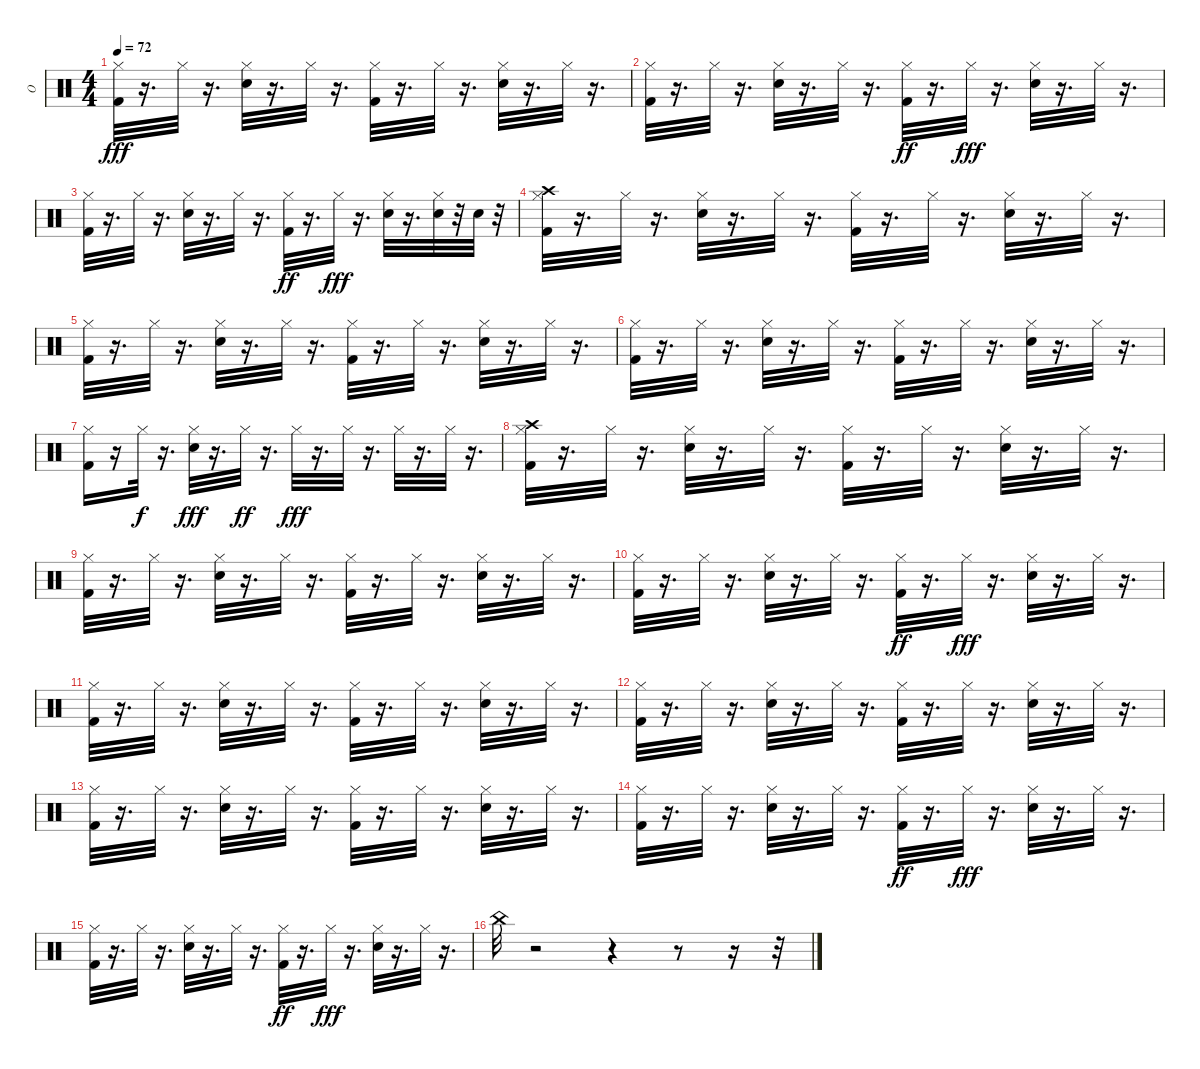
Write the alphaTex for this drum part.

\track ("O" "O") {instrument percussion}
\staff {score}
\articulation defaults
\ts (4 4)
\tempo 72
\clef neutral
\ks c
("Hi-Hat (closed)" "Kick (hit) 2").32{dy fff} r.16{d} "Hi-Hat (closed)".32 r.16{d} ("Hi-Hat (closed)" "Snare (hit) 2").32 r.16{d} "Hi-Hat (closed)".32 r.16{d} ("Hi-Hat (closed)" "Kick (hit) 2").32 r.16{d} "Hi-Hat (closed)".32 r.16{d} ("Hi-Hat (closed)" "Snare (hit) 2").32 r.16{d} "Hi-Hat (closed)".32 r.16{d} |
("Hi-Hat (closed)" "Kick (hit) 2").32 r.16{d} "Hi-Hat (closed)".32 r.16{d} ("Hi-Hat (closed)" "Snare (hit) 2").32 r.16{d} "Hi-Hat (closed)".32 r.16{d} ("Hi-Hat (closed)" "Kick (hit) 2").32{dy ff} r.16{d} "Hi-Hat (closed)".32{dy fff} r.16{d} ("Hi-Hat (closed)" "Snare (hit) 2").32 r.16{d} "Hi-Hat (closed)".32 r.16{d} |
("Hi-Hat (closed)" "Kick (hit) 2").32 r.16{d} "Hi-Hat (closed)".32 r.16{d} ("Hi-Hat (closed)" "Snare (hit) 2").32 r.16{d} "Hi-Hat (closed)".32 r.16{d} ("Hi-Hat (closed)" "Kick (hit) 2").32{dy ff} r.16{d} "Hi-Hat (closed)".32{dy fff} r.16{d} ("Hi-Hat (closed)" "Snare (hit) 2").32 r.16{d} ("Snare (hit) 2" "Hi-Hat (closed)").32 r.32 "Snare (hit) 2".32 r.32 |
("Crash high (hit)" "Kick (hit) 2" "Hi-Hat (closed)").32 r.16{d} "Hi-Hat (closed)".32 r.16{d} ("Hi-Hat (closed)" "Snare (hit) 2").32 r.16{d} "Hi-Hat (closed)".32 r.16{d} ("Hi-Hat (closed)" "Kick (hit) 2").32 r.16{d} "Hi-Hat (closed)".32 r.16{d} ("Hi-Hat (closed)" "Snare (hit) 2").32 r.16{d} "Hi-Hat (closed)".32 r.16{d} |
("Hi-Hat (closed)" "Kick (hit) 2").32 r.16{d} "Hi-Hat (closed)".32 r.16{d} ("Hi-Hat (closed)" "Snare (hit) 2").32 r.16{d} "Hi-Hat (closed)".32 r.16{d} ("Hi-Hat (closed)" "Kick (hit) 2").32 r.16{d} "Hi-Hat (closed)".32 r.16{d} ("Hi-Hat (closed)" "Snare (hit) 2").32 r.16{d} "Hi-Hat (closed)".32 r.16{d} |
("Hi-Hat (closed)" "Kick (hit) 2").32 r.16{d} "Hi-Hat (closed)".32 r.16{d} ("Hi-Hat (closed)" "Snare (hit) 2").32 r.16{d} "Hi-Hat (closed)".32 r.16{d} ("Hi-Hat (closed)" "Kick (hit) 2").32 r.16{d} "Hi-Hat (closed)".32 r.16{d} ("Hi-Hat (closed)" "Snare (hit) 2").32 r.16{d} "Hi-Hat (closed)".32 r.16{d} |
("Kick (hit) 2" "Hi-Hat (closed)").16 r.16 "Hi-Hat (closed)".32{dy f} r.16{d} ("Snare (hit) 2" "Hi-Hat (closed)").32{dy fff} r.16{d} "Hi-Hat (closed)".32{dy ff} r.16{d} "Hi-Hat (closed)".32{dy fff} r.16{d} "Hi-Hat (closed)".32 r.16{d} "Hi-Hat (closed)".32 r.16{d} "Hi-Hat (closed)".32 r.16{d} |
("Hi-Hat (closed)" "Kick (hit) 2" "Crash high (hit)").32 r.16{d} "Hi-Hat (closed)".32 r.16{d} ("Hi-Hat (closed)" "Snare (hit) 2").32 r.16{d} "Hi-Hat (closed)".32 r.16{d} ("Hi-Hat (closed)" "Kick (hit) 2").32 r.16{d} "Hi-Hat (closed)".32 r.16{d} ("Hi-Hat (closed)" "Snare (hit) 2").32 r.16{d} "Hi-Hat (closed)".32 r.16{d} |
("Kick (hit) 2" "Hi-Hat (closed)").32 r.16{d} "Hi-Hat (closed)".32 r.16{d} ("Hi-Hat (closed)" "Snare (hit) 2").32 r.16{d} "Hi-Hat (closed)".32 r.16{d} ("Hi-Hat (closed)" "Kick (hit) 2").32 r.16{d} "Hi-Hat (closed)".32 r.16{d} ("Hi-Hat (closed)" "Snare (hit) 2").32 r.16{d} "Hi-Hat (closed)".32 r.16{d} |
("Hi-Hat (closed)" "Kick (hit) 2").32 r.16{d} "Hi-Hat (closed)".32 r.16{d} ("Hi-Hat (closed)" "Snare (hit) 2").32 r.16{d} "Hi-Hat (closed)".32 r.16{d} ("Hi-Hat (closed)" "Kick (hit) 2").32{dy ff} r.16{d} "Hi-Hat (closed)".32{dy fff} r.16{d} ("Hi-Hat (closed)" "Snare (hit) 2").32 r.16{d} "Hi-Hat (closed)".32 r.16{d} |
("Hi-Hat (closed)" "Kick (hit) 2").32 r.16{d} "Hi-Hat (closed)".32 r.16{d} ("Hi-Hat (closed)" "Snare (hit) 2").32 r.16{d} "Hi-Hat (closed)".32 r.16{d} ("Hi-Hat (closed)" "Kick (hit) 2").32 r.16{d} "Hi-Hat (closed)".32 r.16{d} ("Hi-Hat (closed)" "Snare (hit) 2").32 r.16{d} "Hi-Hat (closed)".32 r.16{d} |
("Kick (hit) 2" "Hi-Hat (closed)").32 r.16{d} "Hi-Hat (closed)".32 r.16{d} ("Hi-Hat (closed)" "Snare (hit) 2").32 r.16{d} "Hi-Hat (closed)".32 r.16{d} ("Hi-Hat (closed)" "Kick (hit) 2").32 r.16{d} "Hi-Hat (closed)".32 r.16{d} ("Hi-Hat (closed)" "Snare (hit) 2").32 r.16{d} "Hi-Hat (closed)".32 r.16{d} |
("Hi-Hat (closed)" "Kick (hit) 2").32 r.16{d} "Hi-Hat (closed)".32 r.16{d} ("Hi-Hat (closed)" "Snare (hit) 2").32 r.16{d} "Hi-Hat (closed)".32 r.16{d} ("Hi-Hat (closed)" "Kick (hit) 2").32 r.16{d} "Hi-Hat (closed)".32 r.16{d} ("Hi-Hat (closed)" "Snare (hit) 2").32 r.16{d} "Hi-Hat (closed)".32 r.16{d} |
("Hi-Hat (closed)" "Kick (hit) 2").32 r.16{d} "Hi-Hat (closed)".32 r.16{d} ("Hi-Hat (closed)" "Snare (hit) 2").32 r.16{d} "Hi-Hat (closed)".32 r.16{d} ("Hi-Hat (closed)" "Kick (hit) 2").32{dy ff} r.16{d} "Hi-Hat (closed)".32{dy fff} r.16{d} ("Hi-Hat (closed)" "Snare (hit) 2").32 r.16{d} "Hi-Hat (closed)".32 r.16{d} |
("Hi-Hat (closed)" "Kick (hit) 2").32 r.16{d} "Hi-Hat (closed)".32 r.16{d} ("Hi-Hat (closed)" "Snare (hit) 2").32 r.16{d} "Hi-Hat (closed)".32 r.16{d} ("Hi-Hat (closed)" "Kick (hit) 2").32{dy ff} r.16{d} "Hi-Hat (closed)".32{dy fff} r.16{d} ("Hi-Hat (closed)" "Snare (hit) 2").32 r.16{d} "Hi-Hat (closed)".32 r.16{d} |
"China (hit)".32 r.2 r.4 r.8 r.16 r.32
